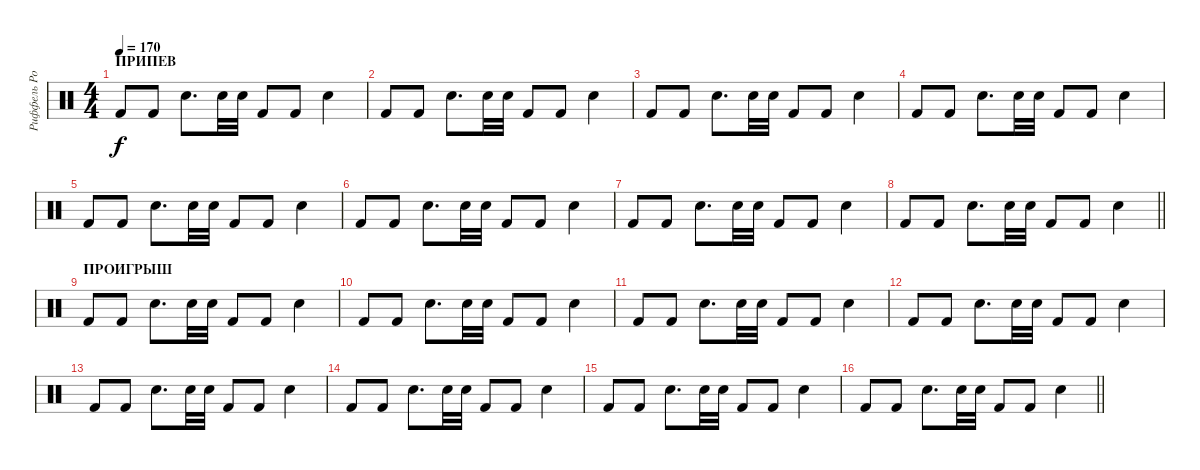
\track ("Риффель Роман (главные)" "Риффель Ро") {instrument percussion}
\staff {score}
\articulation defaults
\ts (4 4)
\section ("" "ПРИПЕВ")
\tempo 170
\clef neutral
\ks c "Kick (hit) 2".8{dy f} "Kick (hit) 2".8 "Electric Snare (hit)".8{d} "Electric Snare (hit)".32 "Electric Snare (hit)".32 "Kick (hit) 2".8 "Kick (hit) 2".8 "Electric Snare (hit)".4
|
"Kick (hit) 2".8 "Kick (hit) 2".8 "Electric Snare (hit)".8{d} "Electric Snare (hit)".32 "Electric Snare (hit)".32 "Kick (hit) 2".8 "Kick (hit) 2".8 "Electric Snare (hit)".4 |
"Kick (hit) 2".8 "Kick (hit) 2".8 "Electric Snare (hit)".8{d} "Electric Snare (hit)".32 "Electric Snare (hit)".32 "Kick (hit) 2".8 "Kick (hit) 2".8 "Electric Snare (hit)".4 |
"Kick (hit) 2".8 "Kick (hit) 2".8 "Electric Snare (hit)".8{d} "Electric Snare (hit)".32 "Electric Snare (hit)".32 "Kick (hit) 2".8 "Kick (hit) 2".8 "Electric Snare (hit)".4 |
"Kick (hit) 2".8 "Kick (hit) 2".8 "Electric Snare (hit)".8{d} "Electric Snare (hit)".32 "Electric Snare (hit)".32 "Kick (hit) 2".8 "Kick (hit) 2".8 "Electric Snare (hit)".4 |
"Kick (hit) 2".8 "Kick (hit) 2".8 "Electric Snare (hit)".8{d} "Electric Snare (hit)".32 "Electric Snare (hit)".32 "Kick (hit) 2".8 "Kick (hit) 2".8 "Electric Snare (hit)".4 |
"Kick (hit) 2".8 "Kick (hit) 2".8 "Electric Snare (hit)".8{d} "Electric Snare (hit)".32 "Electric Snare (hit)".32 "Kick (hit) 2".8 "Kick (hit) 2".8 "Electric Snare (hit)".4 |
\barLineRight lightlight "Kick (hit) 2".8 "Kick (hit) 2".8 "Electric Snare (hit)".8{d} "Electric Snare (hit)".32 "Electric Snare (hit)".32 "Kick (hit) 2".8 "Kick (hit) 2".8 "Electric Snare (hit)".4
|
\section ("" "ПРОИГРЫШ")
"Kick (hit) 2".8 "Kick (hit) 2".8 "Electric Snare (hit)".8{d} "Electric Snare (hit)".32 "Electric Snare (hit)".32 "Kick (hit) 2".8 "Kick (hit) 2".8 "Electric Snare (hit)".4 |
"Kick (hit) 2".8 "Kick (hit) 2".8 "Electric Snare (hit)".8{d} "Electric Snare (hit)".32 "Electric Snare (hit)".32 "Kick (hit) 2".8 "Kick (hit) 2".8 "Electric Snare (hit)".4 |
"Kick (hit) 2".8 "Kick (hit) 2".8 "Electric Snare (hit)".8{d} "Electric Snare (hit)".32 "Electric Snare (hit)".32 "Kick (hit) 2".8 "Kick (hit) 2".8 "Electric Snare (hit)".4 |
"Kick (hit) 2".8 "Kick (hit) 2".8 "Electric Snare (hit)".8{d} "Electric Snare (hit)".32 "Electric Snare (hit)".32 "Kick (hit) 2".8 "Kick (hit) 2".8 "Electric Snare (hit)".4 |
"Kick (hit) 2".8 "Kick (hit) 2".8 "Electric Snare (hit)".8{d} "Electric Snare (hit)".32 "Electric Snare (hit)".32 "Kick (hit) 2".8 "Kick (hit) 2".8 "Electric Snare (hit)".4 |
"Kick (hit) 2".8 "Kick (hit) 2".8 "Electric Snare (hit)".8{d} "Electric Snare (hit)".32 "Electric Snare (hit)".32 "Kick (hit) 2".8 "Kick (hit) 2".8 "Electric Snare (hit)".4 |
"Kick (hit) 2".8 "Kick (hit) 2".8 "Electric Snare (hit)".8{d} "Electric Snare (hit)".32 "Electric Snare (hit)".32 "Kick (hit) 2".8 "Kick (hit) 2".8 "Electric Snare (hit)".4 |
\barLineRight lightlight "Kick (hit) 2".8 "Kick (hit) 2".8 "Electric Snare (hit)".8{d} "Electric Snare (hit)".32 "Electric Snare (hit)".32 "Kick (hit) 2".8 "Kick (hit) 2".8 "Electric Snare (hit)".4
